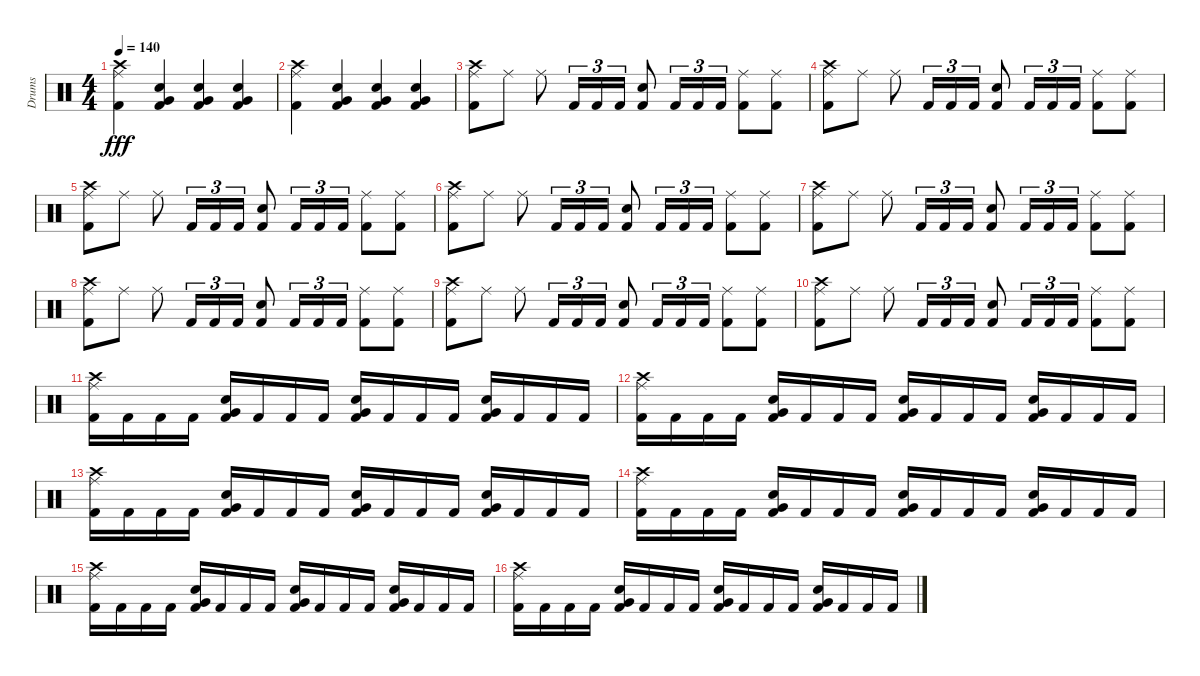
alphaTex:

\track ("Drums" "Drums") {instrument percussion}
\staff {score}
\articulation defaults
\ts (4 4)
\tempo 140
\clef neutral
\ks c
("Crash high (hit)" "Ride (middle)" "Kick (hit) 2").4{dy fff} ("Very Low Tom (hit)" "Snare (hit) 2" "Kick (hit) 2").4 ("Very Low Tom (hit)" "Snare (hit) 2" "Kick (hit) 2").4 ("Very Low Tom (hit)" "Snare (hit) 2" "Kick (hit) 2").4 |
("Crash high (hit)" "Ride (middle)" "Kick (hit) 2").4 ("Very Low Tom (hit)" "Snare (hit) 2" "Kick (hit) 2").4 ("Very Low Tom (hit)" "Snare (hit) 2" "Kick (hit) 2").4 ("Very Low Tom (hit)" "Snare (hit) 2" "Kick (hit) 2").4 |
("Crash high (hit)" "Kick (hit) 2" "Ride (middle)").8 "Ride (middle)".8 "Ride (middle)".8 "Kick (hit) 2".16{tu (3 2)} "Kick (hit) 2".16{tu (3 2)} "Kick (hit) 2".16{tu (3 2)} ("Snare (hit) 2" "Kick (hit) 2").8 "Kick (hit) 2".16{tu (3 2)} "Kick (hit) 2".16{tu (3 2)} "Kick (hit) 2".16{tu (3 2)} ("Ride (middle)" "Kick (hit) 2").8 ("Ride (middle)" "Kick (hit) 2").8 |
("Crash high (hit)" "Kick (hit) 2" "Ride (middle)").8 "Ride (middle)".8 "Ride (middle)".8 "Kick (hit) 2".16{tu (3 2)} "Kick (hit) 2".16{tu (3 2)} "Kick (hit) 2".16{tu (3 2)} ("Snare (hit) 2" "Kick (hit) 2").8 "Kick (hit) 2".16{tu (3 2)} "Kick (hit) 2".16{tu (3 2)} "Kick (hit) 2".16{tu (3 2)} ("Ride (middle)" "Kick (hit) 2").8 ("Ride (middle)" "Kick (hit) 2").8 |
("Crash high (hit)" "Kick (hit) 2" "Ride (middle)").8 "Ride (middle)".8 "Ride (middle)".8 "Kick (hit) 2".16{tu (3 2)} "Kick (hit) 2".16{tu (3 2)} "Kick (hit) 2".16{tu (3 2)} ("Snare (hit) 2" "Kick (hit) 2").8 "Kick (hit) 2".16{tu (3 2)} "Kick (hit) 2".16{tu (3 2)} "Kick (hit) 2".16{tu (3 2)} ("Ride (middle)" "Kick (hit) 2").8 ("Ride (middle)" "Kick (hit) 2").8 |
("Crash high (hit)" "Kick (hit) 2" "Ride (middle)").8 "Ride (middle)".8 "Ride (middle)".8 "Kick (hit) 2".16{tu (3 2)} "Kick (hit) 2".16{tu (3 2)} "Kick (hit) 2".16{tu (3 2)} ("Snare (hit) 2" "Kick (hit) 2").8 "Kick (hit) 2".16{tu (3 2)} "Kick (hit) 2".16{tu (3 2)} "Kick (hit) 2".16{tu (3 2)} ("Ride (middle)" "Kick (hit) 2").8 ("Ride (middle)" "Kick (hit) 2").8 |
("Crash high (hit)" "Kick (hit) 2" "Ride (middle)").8 "Ride (middle)".8 "Ride (middle)".8 "Kick (hit) 2".16{tu (3 2)} "Kick (hit) 2".16{tu (3 2)} "Kick (hit) 2".16{tu (3 2)} ("Snare (hit) 2" "Kick (hit) 2").8 "Kick (hit) 2".16{tu (3 2)} "Kick (hit) 2".16{tu (3 2)} "Kick (hit) 2".16{tu (3 2)} ("Ride (middle)" "Kick (hit) 2").8 ("Ride (middle)" "Kick (hit) 2").8 |
("Crash high (hit)" "Kick (hit) 2" "Ride (middle)").8 "Ride (middle)".8 "Ride (middle)".8 "Kick (hit) 2".16{tu (3 2)} "Kick (hit) 2".16{tu (3 2)} "Kick (hit) 2".16{tu (3 2)} ("Snare (hit) 2" "Kick (hit) 2").8 "Kick (hit) 2".16{tu (3 2)} "Kick (hit) 2".16{tu (3 2)} "Kick (hit) 2".16{tu (3 2)} ("Ride (middle)" "Kick (hit) 2").8 ("Ride (middle)" "Kick (hit) 2").8 |
("Crash high (hit)" "Kick (hit) 2" "Ride (middle)").8 "Ride (middle)".8 "Ride (middle)".8 "Kick (hit) 2".16{tu (3 2)} "Kick (hit) 2".16{tu (3 2)} "Kick (hit) 2".16{tu (3 2)} ("Snare (hit) 2" "Kick (hit) 2").8 "Kick (hit) 2".16{tu (3 2)} "Kick (hit) 2".16{tu (3 2)} "Kick (hit) 2".16{tu (3 2)} ("Ride (middle)" "Kick (hit) 2").8 ("Ride (middle)" "Kick (hit) 2").8 |
("Crash high (hit)" "Kick (hit) 2" "Ride (middle)").8 "Ride (middle)".8 "Ride (middle)".8 "Kick (hit) 2".16{tu (3 2)} "Kick (hit) 2".16{tu (3 2)} "Kick (hit) 2".16{tu (3 2)} ("Snare (hit) 2" "Kick (hit) 2").8 "Kick (hit) 2".16{tu (3 2)} "Kick (hit) 2".16{tu (3 2)} "Kick (hit) 2".16{tu (3 2)} ("Ride (middle)" "Kick (hit) 2").8 ("Ride (middle)" "Kick (hit) 2").8 |
("Crash high (hit)" "Ride (middle)" "Kick (hit) 2").16 "Kick (hit) 2".16 "Kick (hit) 2".16 "Kick (hit) 2".16 ("Very Low Tom (hit)" "Snare (hit) 2" "Kick (hit) 2").16 "Kick (hit) 2".16 "Kick (hit) 2".16 "Kick (hit) 2".16 ("Very Low Tom (hit)" "Snare (hit) 2" "Kick (hit) 2").16 "Kick (hit) 2".16 "Kick (hit) 2".16 "Kick (hit) 2".16 ("Very Low Tom (hit)" "Snare (hit) 2" "Kick (hit) 2").16 "Kick (hit) 2".16 "Kick (hit) 2".16 "Kick (hit) 2".16 |
("Crash high (hit)" "Ride (middle)" "Kick (hit) 2").16 "Kick (hit) 2".16 "Kick (hit) 2".16 "Kick (hit) 2".16 ("Very Low Tom (hit)" "Snare (hit) 2" "Kick (hit) 2").16 "Kick (hit) 2".16 "Kick (hit) 2".16 "Kick (hit) 2".16 ("Very Low Tom (hit)" "Snare (hit) 2" "Kick (hit) 2").16 "Kick (hit) 2".16 "Kick (hit) 2".16 "Kick (hit) 2".16 ("Very Low Tom (hit)" "Snare (hit) 2" "Kick (hit) 2").16 "Kick (hit) 2".16 "Kick (hit) 2".16 "Kick (hit) 2".16 |
("Crash high (hit)" "Ride (middle)" "Kick (hit) 2").16 "Kick (hit) 2".16 "Kick (hit) 2".16 "Kick (hit) 2".16 ("Very Low Tom (hit)" "Snare (hit) 2" "Kick (hit) 2").16 "Kick (hit) 2".16 "Kick (hit) 2".16 "Kick (hit) 2".16 ("Very Low Tom (hit)" "Snare (hit) 2" "Kick (hit) 2").16 "Kick (hit) 2".16 "Kick (hit) 2".16 "Kick (hit) 2".16 ("Very Low Tom (hit)" "Snare (hit) 2" "Kick (hit) 2").16 "Kick (hit) 2".16 "Kick (hit) 2".16 "Kick (hit) 2".16 |
("Crash high (hit)" "Ride (middle)" "Kick (hit) 2").16 "Kick (hit) 2".16 "Kick (hit) 2".16 "Kick (hit) 2".16 ("Very Low Tom (hit)" "Snare (hit) 2" "Kick (hit) 2").16 "Kick (hit) 2".16 "Kick (hit) 2".16 "Kick (hit) 2".16 ("Very Low Tom (hit)" "Snare (hit) 2" "Kick (hit) 2").16 "Kick (hit) 2".16 "Kick (hit) 2".16 "Kick (hit) 2".16 ("Very Low Tom (hit)" "Snare (hit) 2" "Kick (hit) 2").16 "Kick (hit) 2".16 "Kick (hit) 2".16 "Kick (hit) 2".16 |
("Crash high (hit)" "Ride (middle)" "Kick (hit) 2").16 "Kick (hit) 2".16 "Kick (hit) 2".16 "Kick (hit) 2".16 ("Very Low Tom (hit)" "Snare (hit) 2" "Kick (hit) 2").16 "Kick (hit) 2".16 "Kick (hit) 2".16 "Kick (hit) 2".16 ("Very Low Tom (hit)" "Snare (hit) 2" "Kick (hit) 2").16 "Kick (hit) 2".16 "Kick (hit) 2".16 "Kick (hit) 2".16 ("Very Low Tom (hit)" "Snare (hit) 2" "Kick (hit) 2").16 "Kick (hit) 2".16 "Kick (hit) 2".16 "Kick (hit) 2".16 |
("Crash high (hit)" "Ride (middle)" "Kick (hit) 2").16 "Kick (hit) 2".16 "Kick (hit) 2".16 "Kick (hit) 2".16 ("Very Low Tom (hit)" "Snare (hit) 2" "Kick (hit) 2").16 "Kick (hit) 2".16 "Kick (hit) 2".16 "Kick (hit) 2".16 ("Very Low Tom (hit)" "Snare (hit) 2" "Kick (hit) 2").16 "Kick (hit) 2".16 "Kick (hit) 2".16 "Kick (hit) 2".16 ("Very Low Tom (hit)" "Snare (hit) 2" "Kick (hit) 2").16 "Kick (hit) 2".16 "Kick (hit) 2".16 "Kick (hit) 2".16
